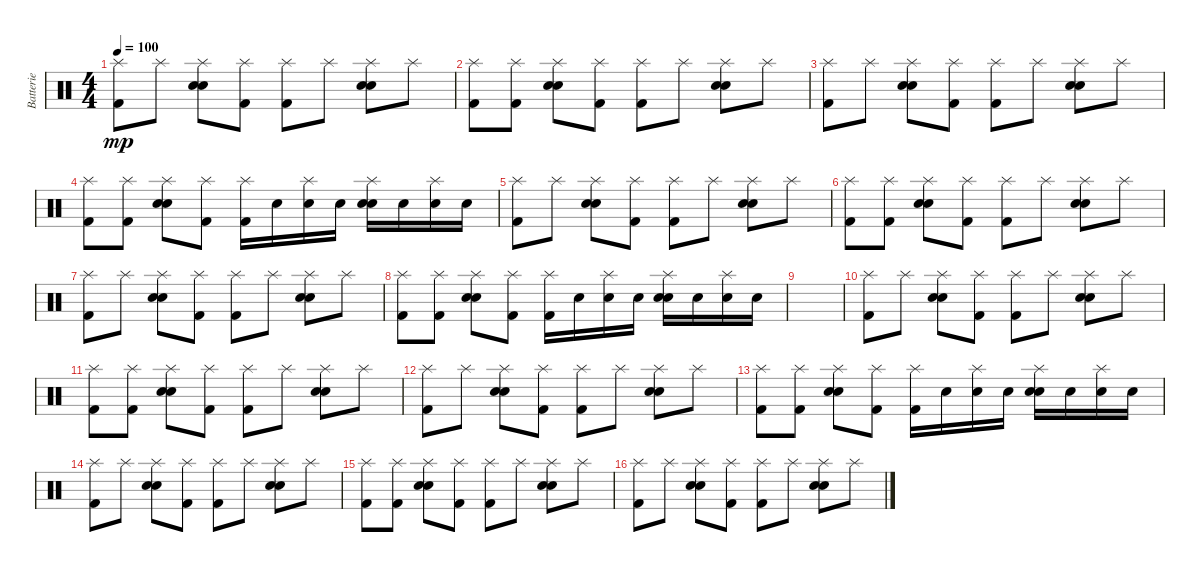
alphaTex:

\track ("Batterie" "Batterie") {instrument percussion}
\staff {score}
\articulation defaults
\ts (4 4)
\tempo 100
\clef neutral
\ks c
("Kick (hit) 2" "Splash (hit)").8{dy mp} "Splash (hit)".8 ("Hand Clap (hit)" "Electric Snare (hit)" "Splash (hit)").8 ("Kick (hit) 2" "Splash (hit)").8 ("Kick (hit) 2" "Splash (hit)").8 "Splash (hit)".8 ("Hand Clap (hit)" "Electric Snare (hit)" "Splash (hit)").8 "Splash (hit)".8 |
("Kick (hit) 2" "Splash (hit)").8 ("Kick (hit) 2" "Splash (hit)").8 ("Hand Clap (hit)" "Electric Snare (hit)" "Splash (hit)").8 ("Kick (hit) 2" "Splash (hit)").8 ("Kick (hit) 2" "Splash (hit)").8 "Splash (hit)".8 ("Hand Clap (hit)" "Electric Snare (hit)" "Splash (hit)").8 "Splash (hit)".8 |
("Kick (hit) 2" "Splash (hit)").8 "Splash (hit)".8 ("Hand Clap (hit)" "Electric Snare (hit)" "Splash (hit)").8 ("Kick (hit) 2" "Splash (hit)").8 ("Kick (hit) 2" "Splash (hit)").8 "Splash (hit)".8 ("Hand Clap (hit)" "Electric Snare (hit)" "Splash (hit)").8 "Splash (hit)".8 |
("Kick (hit) 2" "Splash (hit)").8 ("Kick (hit) 2" "Splash (hit)").8 ("Hand Clap (hit)" "Electric Snare (hit)" "Splash (hit)").8 ("Kick (hit) 2" "Splash (hit)").8 ("Kick (hit) 2" "Splash (hit)").16 "Electric Snare (hit)".16 ("Electric Snare (hit)" "Splash (hit)").16 "Electric Snare (hit)".16 ("Hand Clap (hit)" "Electric Snare (hit)" "Splash (hit)").16 "Electric Snare (hit)".16 ("Electric Snare (hit)" "Splash (hit)").16 "Electric Snare (hit)".16 |
("Kick (hit) 2" "Splash (hit)").8 "Splash (hit)".8 ("Hand Clap (hit)" "Electric Snare (hit)" "Splash (hit)").8 ("Kick (hit) 2" "Splash (hit)").8 ("Kick (hit) 2" "Splash (hit)").8 "Splash (hit)".8 ("Hand Clap (hit)" "Electric Snare (hit)" "Splash (hit)").8 "Splash (hit)".8 |
("Kick (hit) 2" "Splash (hit)").8 ("Kick (hit) 2" "Splash (hit)").8 ("Hand Clap (hit)" "Electric Snare (hit)" "Splash (hit)").8 ("Kick (hit) 2" "Splash (hit)").8 ("Kick (hit) 2" "Splash (hit)").8 "Splash (hit)".8 ("Hand Clap (hit)" "Electric Snare (hit)" "Splash (hit)").8 "Splash (hit)".8 |
("Kick (hit) 2" "Splash (hit)").8 "Splash (hit)".8 ("Hand Clap (hit)" "Electric Snare (hit)" "Splash (hit)").8 ("Kick (hit) 2" "Splash (hit)").8 ("Kick (hit) 2" "Splash (hit)").8 "Splash (hit)".8 ("Hand Clap (hit)" "Electric Snare (hit)" "Splash (hit)").8 "Splash (hit)".8 |
("Kick (hit) 2" "Splash (hit)").8 ("Kick (hit) 2" "Splash (hit)").8 ("Hand Clap (hit)" "Electric Snare (hit)" "Splash (hit)").8 ("Kick (hit) 2" "Splash (hit)").8 ("Kick (hit) 2" "Splash (hit)").16 "Electric Snare (hit)".16 ("Electric Snare (hit)" "Splash (hit)").16 "Electric Snare (hit)".16 ("Hand Clap (hit)" "Electric Snare (hit)" "Splash (hit)").16 "Electric Snare (hit)".16 ("Electric Snare (hit)" "Splash (hit)").16 "Electric Snare (hit)".16 |
|
("Kick (hit) 2" "Splash (hit)").8 "Splash (hit)".8 ("Hand Clap (hit)" "Electric Snare (hit)" "Splash (hit)").8 ("Kick (hit) 2" "Splash (hit)").8 ("Kick (hit) 2" "Splash (hit)").8 "Splash (hit)".8 ("Hand Clap (hit)" "Electric Snare (hit)" "Splash (hit)").8 "Splash (hit)".8 |
("Kick (hit) 2" "Splash (hit)").8 ("Kick (hit) 2" "Splash (hit)").8 ("Hand Clap (hit)" "Electric Snare (hit)" "Splash (hit)").8 ("Kick (hit) 2" "Splash (hit)").8 ("Kick (hit) 2" "Splash (hit)").8 "Splash (hit)".8 ("Hand Clap (hit)" "Electric Snare (hit)" "Splash (hit)").8 "Splash (hit)".8 |
("Kick (hit) 2" "Splash (hit)").8 "Splash (hit)".8 ("Hand Clap (hit)" "Electric Snare (hit)" "Splash (hit)").8 ("Kick (hit) 2" "Splash (hit)").8 ("Kick (hit) 2" "Splash (hit)").8 "Splash (hit)".8 ("Hand Clap (hit)" "Electric Snare (hit)" "Splash (hit)").8 "Splash (hit)".8 |
("Kick (hit) 2" "Splash (hit)").8 ("Kick (hit) 2" "Splash (hit)").8 ("Hand Clap (hit)" "Electric Snare (hit)" "Splash (hit)").8 ("Kick (hit) 2" "Splash (hit)").8 ("Kick (hit) 2" "Splash (hit)").16 "Electric Snare (hit)".16 ("Electric Snare (hit)" "Splash (hit)").16 "Electric Snare (hit)".16 ("Hand Clap (hit)" "Electric Snare (hit)" "Splash (hit)").16 "Electric Snare (hit)".16 ("Electric Snare (hit)" "Splash (hit)").16 "Electric Snare (hit)".16 |
("Kick (hit) 2" "Splash (hit)").8 "Splash (hit)".8 ("Hand Clap (hit)" "Electric Snare (hit)" "Splash (hit)").8 ("Kick (hit) 2" "Splash (hit)").8 ("Kick (hit) 2" "Splash (hit)").8 "Splash (hit)".8 ("Hand Clap (hit)" "Electric Snare (hit)" "Splash (hit)").8 "Splash (hit)".8 |
("Kick (hit) 2" "Splash (hit)").8 ("Kick (hit) 2" "Splash (hit)").8 ("Hand Clap (hit)" "Electric Snare (hit)" "Splash (hit)").8 ("Kick (hit) 2" "Splash (hit)").8 ("Kick (hit) 2" "Splash (hit)").8 "Splash (hit)".8 ("Hand Clap (hit)" "Electric Snare (hit)" "Splash (hit)").8 "Splash (hit)".8 |
("Kick (hit) 2" "Splash (hit)").8 "Splash (hit)".8 ("Hand Clap (hit)" "Electric Snare (hit)" "Splash (hit)").8 ("Kick (hit) 2" "Splash (hit)").8 ("Kick (hit) 2" "Splash (hit)").8 "Splash (hit)".8 ("Hand Clap (hit)" "Electric Snare (hit)" "Splash (hit)").8 "Splash (hit)".8
